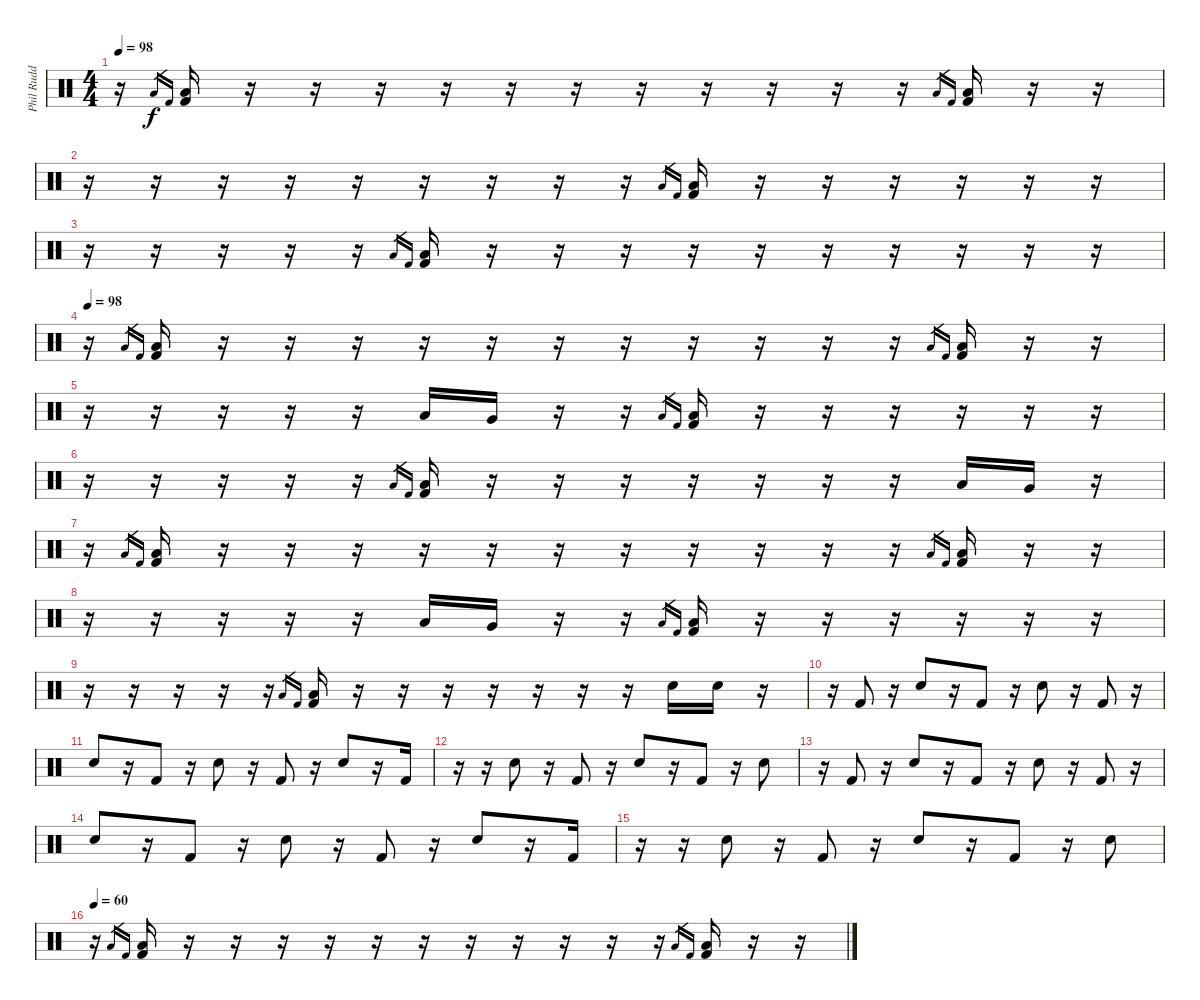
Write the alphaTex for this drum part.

\track ("Phil Rudd" "Phil Rudd") {instrument percussion}
\staff {score}
\articulation defaults
\ts (4 4)
\tempo 98
\clef neutral
\ks c
r.16{dy f} "Low Tom (hit)".16{gr} "Kick (hit) 2".16{gr} ("Low Tom (hit)" "Kick (hit) 2").16 r.16 r.16 r.16 r.16 r.16 r.16 r.16 r.16 r.16 r.16 r.16 "Low Tom (hit)".16{gr} "Kick (hit) 2".16{gr} ("Low Tom (hit)" "Kick (hit) 2").16 r.16 r.16 |
r.16 r.16 r.16 r.16 r.16 r.16 r.16 r.16 r.16 "Low Tom (hit)".16{gr} "Kick (hit) 2".16{gr} ("Low Tom (hit)" "Kick (hit) 2").16 r.16 r.16 r.16 r.16 r.16 r.16 |
r.16 r.16 r.16 r.16 r.16 "Low Tom (hit)".16{gr} "Kick (hit) 2".16{gr} ("Low Tom (hit)" "Kick (hit) 2").16 r.16 r.16 r.16 r.16 r.16 r.16 r.16 r.16 r.16 r.16 |
\tempo 98
r.16 "Low Tom (hit)".16{gr} "Kick (hit) 2".16{gr} ("Low Tom (hit)" "Kick (hit) 2").16 r.16 r.16 r.16 r.16 r.16 r.16 r.16 r.16 r.16 r.16 r.16 "Low Tom (hit)".16{gr} "Kick (hit) 2".16{gr} ("Low Tom (hit)" "Kick (hit) 2").16 r.16 r.16 |
r.16 r.16 r.16 r.16 r.16 "Low Tom (hit)".16 "Very Low Tom (hit)".16 r.16 r.16 "Low Tom (hit)".16{gr} "Kick (hit) 2".16{gr} ("Low Tom (hit)" "Kick (hit) 2").16 r.16 r.16 r.16 r.16 r.16 r.16 |
r.16 r.16 r.16 r.16 r.16 "Low Tom (hit)".16{gr} "Kick (hit) 2".16{gr} ("Low Tom (hit)" "Kick (hit) 2").16 r.16 r.16 r.16 r.16 r.16 r.16 r.16 "Low Tom (hit)".16 "Very Low Tom (hit)".16 r.16 |
r.16 "Low Tom (hit)".16{gr} "Kick (hit) 2".16{gr} ("Low Tom (hit)" "Kick (hit) 2").16 r.16 r.16 r.16 r.16 r.16 r.16 r.16 r.16 r.16 r.16 r.16 "Low Tom (hit)".16{gr} "Kick (hit) 2".16{gr} ("Low Tom (hit)" "Kick (hit) 2").16 r.16 r.16 |
r.16 r.16 r.16 r.16 r.16 "Low Tom (hit)".16 "Very Low Tom (hit)".16 r.16 r.16 "Low Tom (hit)".16{gr} "Kick (hit) 2".16{gr} ("Low Tom (hit)" "Kick (hit) 2").16 r.16 r.16 r.16 r.16 r.16 r.16 |
r.16 r.16 r.16 r.16 r.16 "Low Tom (hit)".16{gr} "Kick (hit) 2".16{gr} ("Low Tom (hit)" "Kick (hit) 2").16 r.16 r.16 r.16 r.16 r.16 r.16 r.16 "Snare (hit) 2".16 "Snare (hit) 2".16 r.16 |
r.16 "Kick (hit) 2".8 r.16 "Snare (hit) 2".8 r.16 "Kick (hit) 2".8 r.16 "Snare (hit) 2".8 r.16 "Kick (hit) 2".8 r.16 |
"Snare (hit) 2".8 r.16 "Kick (hit) 2".8 r.16 "Snare (hit) 2".8 r.16 "Kick (hit) 2".8 r.16 "Snare (hit) 2".8 r.16 "Kick (hit) 2".16 |
r.16 r.16 "Snare (hit) 2".8 r.16 "Kick (hit) 2".8 r.16 "Snare (hit) 2".8 r.16 "Kick (hit) 2".8 r.16 "Snare (hit) 2".8 |
r.16 "Kick (hit) 2".8 r.16 "Snare (hit) 2".8 r.16 "Kick (hit) 2".8 r.16 "Snare (hit) 2".8 r.16 "Kick (hit) 2".8 r.16 |
"Snare (hit) 2".8 r.16 "Kick (hit) 2".8 r.16 "Snare (hit) 2".8 r.16 "Kick (hit) 2".8 r.16 "Snare (hit) 2".8 r.16 "Kick (hit) 2".16 |
r.16 r.16 "Snare (hit) 2".8 r.16 "Kick (hit) 2".8 r.16 "Snare (hit) 2".8 r.16 "Kick (hit) 2".8 r.16 "Snare (hit) 2".8 |
\tempo 60
r.16 "Low Tom (hit)".16{gr} "Kick (hit) 2".16{gr} ("Low Tom (hit)" "Kick (hit) 2").16 r.16 r.16 r.16 r.16 r.16 r.16 r.16 r.16 r.16 r.16 r.16 "Low Tom (hit)".16{gr} "Kick (hit) 2".16{gr} ("Low Tom (hit)" "Kick (hit) 2").16 r.16 r.16
